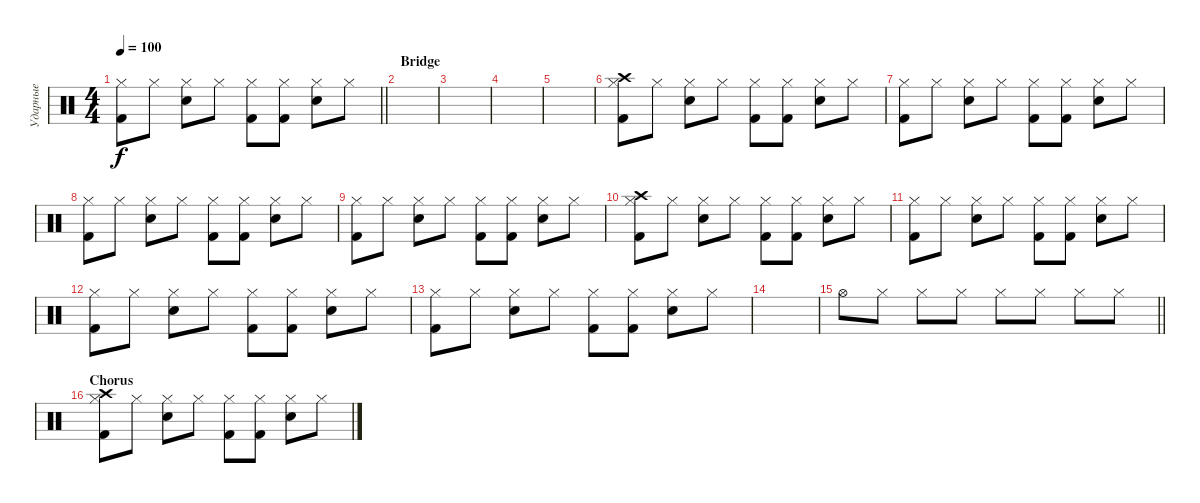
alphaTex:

\track ("Ударные" "Ударные") {instrument percussion}
\staff {score}
\articulation defaults
\ts (4 4)
\tempo 100
\clef neutral
\barLineRight lightlight
\ks c
("Hi-Hat (closed)" "Kick (hit) 2").8{dy f} "Hi-Hat (closed)".8 ("Hi-Hat (closed)" "Electric Snare (hit)").8 "Hi-Hat (closed)".8 ("Hi-Hat (closed)" "Kick (hit) 2").8 ("Hi-Hat (closed)" "Kick (hit) 2").8 ("Hi-Hat (closed)" "Electric Snare (hit)").8 "Hi-Hat (closed)".8 |
\section ("" "Bridge")
|
|
|
|
("Hi-Hat (closed)" "Crash high (hit)" "Kick (hit) 2").8 "Hi-Hat (closed)".8 ("Hi-Hat (closed)" "Electric Snare (hit)").8 "Hi-Hat (closed)".8 ("Hi-Hat (closed)" "Kick (hit) 2").8 ("Hi-Hat (closed)" "Kick (hit) 2").8 ("Hi-Hat (closed)" "Electric Snare (hit)").8 "Hi-Hat (closed)".8 |
("Hi-Hat (closed)" "Kick (hit) 2").8 "Hi-Hat (closed)".8 ("Hi-Hat (closed)" "Electric Snare (hit)").8 "Hi-Hat (closed)".8 ("Hi-Hat (closed)" "Kick (hit) 2").8 ("Hi-Hat (closed)" "Kick (hit) 2").8 ("Hi-Hat (closed)" "Electric Snare (hit)").8 "Hi-Hat (closed)".8 |
("Hi-Hat (closed)" "Kick (hit) 2").8 "Hi-Hat (closed)".8 ("Hi-Hat (closed)" "Electric Snare (hit)").8 "Hi-Hat (closed)".8 ("Hi-Hat (closed)" "Kick (hit) 2").8 ("Hi-Hat (closed)" "Kick (hit) 2").8 ("Hi-Hat (closed)" "Electric Snare (hit)").8 "Hi-Hat (closed)".8 |
("Hi-Hat (closed)" "Kick (hit) 2").8 "Hi-Hat (closed)".8 ("Hi-Hat (closed)" "Electric Snare (hit)").8 "Hi-Hat (closed)".8 ("Hi-Hat (closed)" "Kick (hit) 2").8 ("Hi-Hat (closed)" "Kick (hit) 2").8 ("Hi-Hat (closed)" "Electric Snare (hit)").8 "Hi-Hat (closed)".8 |
("Hi-Hat (closed)" "Crash high (hit)" "Kick (hit) 2").8 "Hi-Hat (closed)".8 ("Hi-Hat (closed)" "Electric Snare (hit)").8 "Hi-Hat (closed)".8 ("Hi-Hat (closed)" "Kick (hit) 2").8 ("Hi-Hat (closed)" "Kick (hit) 2").8 ("Hi-Hat (closed)" "Electric Snare (hit)").8 "Hi-Hat (closed)".8 |
("Hi-Hat (closed)" "Kick (hit) 2").8 "Hi-Hat (closed)".8 ("Hi-Hat (closed)" "Electric Snare (hit)").8 "Hi-Hat (closed)".8 ("Hi-Hat (closed)" "Kick (hit) 2").8 ("Hi-Hat (closed)" "Kick (hit) 2").8 ("Hi-Hat (closed)" "Electric Snare (hit)").8 "Hi-Hat (closed)".8 |
("Hi-Hat (closed)" "Kick (hit) 2").8 "Hi-Hat (closed)".8 ("Hi-Hat (closed)" "Electric Snare (hit)").8 "Hi-Hat (closed)".8 ("Hi-Hat (closed)" "Kick (hit) 2").8 ("Hi-Hat (closed)" "Kick (hit) 2").8 ("Hi-Hat (closed)" "Electric Snare (hit)").8 "Hi-Hat (closed)".8 |
("Hi-Hat (closed)" "Kick (hit) 2").8 "Hi-Hat (closed)".8 ("Hi-Hat (closed)" "Electric Snare (hit)").8 "Hi-Hat (closed)".8 ("Hi-Hat (closed)" "Kick (hit) 2").8 ("Hi-Hat (closed)" "Kick (hit) 2").8 ("Hi-Hat (closed)" "Electric Snare (hit)").8 "Hi-Hat (closed)".8 |
|
\barLineRight lightlight "Hi-Hat (open)".8 "Hi-Hat (closed)".8 "Hi-Hat (closed)".8 "Hi-Hat (closed)".8 "Hi-Hat (closed)".8 "Hi-Hat (closed)".8 "Hi-Hat (closed)".8 "Hi-Hat (closed)".8
|
\section ("" "Chorus")
("Hi-Hat (closed)" "Crash high (hit)" "Kick (hit) 2").8 "Hi-Hat (closed)".8 ("Hi-Hat (closed)" "Electric Snare (hit)").8 "Hi-Hat (closed)".8 ("Hi-Hat (closed)" "Kick (hit) 2").8 ("Hi-Hat (closed)" "Kick (hit) 2").8 ("Hi-Hat (closed)" "Electric Snare (hit)").8 "Hi-Hat (closed)".8
